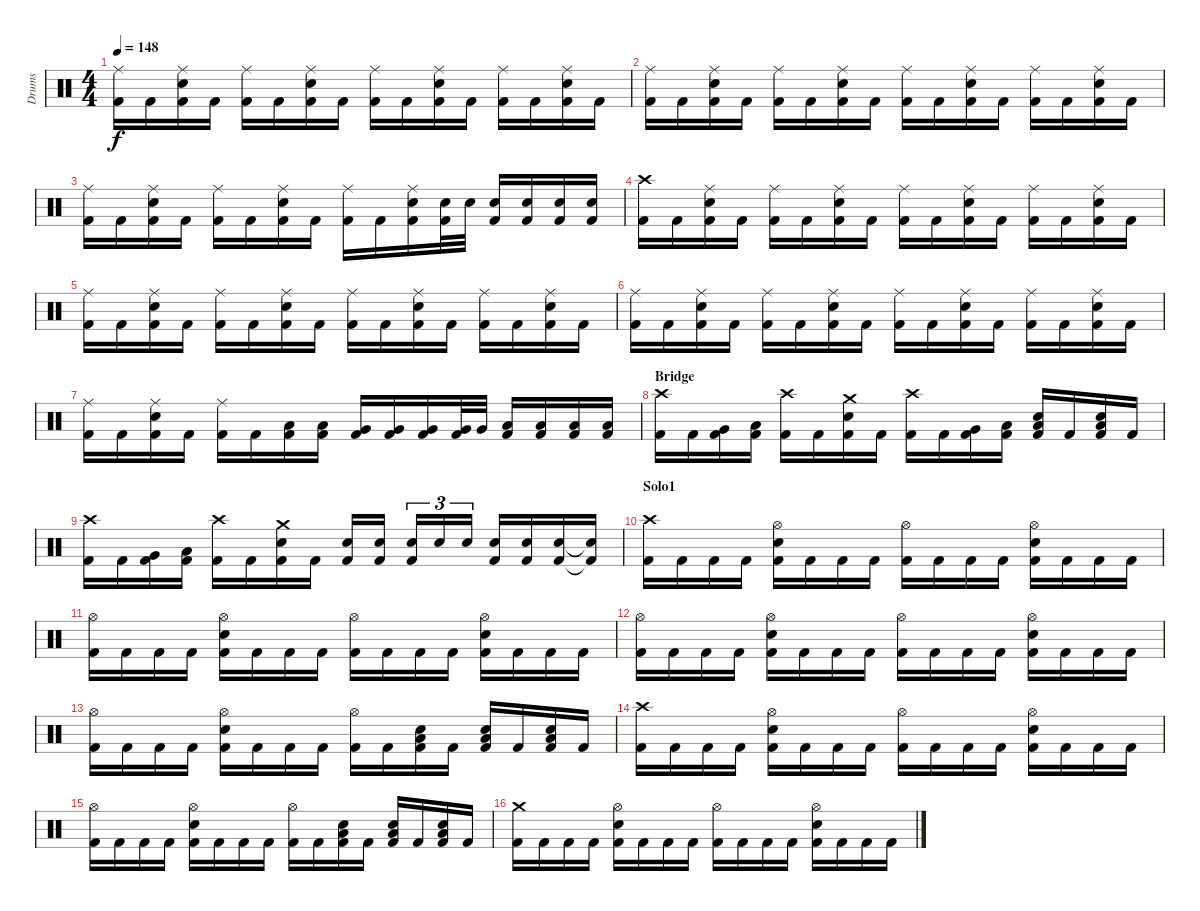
\track ("Drums" "Drums") {instrument percussion}
\staff {score}
\articulation defaults
\ts (4 4)
\tempo 148
\clef neutral
\ks c
("Kick (hit) 2" "Ride (middle)").16{dy f} "Kick (hit) 2".16 ("Kick (hit) 2" "Electric Snare (hit)" "Ride (middle)").16 "Kick (hit) 2".16 ("Kick (hit) 2" "Ride (middle)").16 "Kick (hit) 2".16 ("Kick (hit) 2" "Electric Snare (hit)" "Ride (middle)").16 "Kick (hit) 2".16 ("Kick (hit) 2" "Ride (middle)").16 "Kick (hit) 2".16 ("Kick (hit) 2" "Electric Snare (hit)" "Ride (middle)").16 "Kick (hit) 2".16 ("Kick (hit) 2" "Ride (middle)").16 "Kick (hit) 2".16 ("Kick (hit) 2" "Electric Snare (hit)" "Ride (middle)").16 "Kick (hit) 2".16 |
("Kick (hit) 2" "Ride (middle)").16 "Kick (hit) 2".16 ("Kick (hit) 2" "Electric Snare (hit)" "Ride (middle)").16 "Kick (hit) 2".16 ("Kick (hit) 2" "Ride (middle)").16 "Kick (hit) 2".16 ("Kick (hit) 2" "Electric Snare (hit)" "Ride (middle)").16 "Kick (hit) 2".16 ("Kick (hit) 2" "Ride (middle)").16 "Kick (hit) 2".16 ("Kick (hit) 2" "Electric Snare (hit)" "Ride (middle)").16 "Kick (hit) 2".16 ("Kick (hit) 2" "Ride (middle)").16 "Kick (hit) 2".16 ("Kick (hit) 2" "Electric Snare (hit)" "Ride (middle)").16 "Kick (hit) 2".16 |
("Kick (hit) 2" "Ride (middle)").16 "Kick (hit) 2".16 ("Kick (hit) 2" "Electric Snare (hit)" "Ride (middle)").16 "Kick (hit) 2".16 ("Kick (hit) 2" "Ride (middle)").16 "Kick (hit) 2".16 ("Kick (hit) 2" "Electric Snare (hit)" "Ride (middle)").16 "Kick (hit) 2".16 ("Kick (hit) 2" "Ride (middle)").16 "Kick (hit) 2".16 ("Kick (hit) 2" "Electric Snare (hit)" "Ride (middle)").16 ("Kick (hit) 2" "Electric Snare (hit)").32 "Electric Snare (hit)".32 ("Kick (hit) 2" "Electric Snare (hit)").16 ("Kick (hit) 2" "Electric Snare (hit)").16 ("Kick (hit) 2" "Electric Snare (hit)").16 ("Kick (hit) 2" "Electric Snare (hit)").16 |
("Kick (hit) 2" "Crash high (hit)").16 "Kick (hit) 2".16 ("Kick (hit) 2" "Electric Snare (hit)" "Ride (middle)").16 "Kick (hit) 2".16 ("Kick (hit) 2" "Ride (middle)").16 "Kick (hit) 2".16 ("Kick (hit) 2" "Electric Snare (hit)" "Ride (middle)").16 "Kick (hit) 2".16 ("Kick (hit) 2" "Ride (middle)").16 "Kick (hit) 2".16 ("Kick (hit) 2" "Electric Snare (hit)" "Ride (middle)").16 "Kick (hit) 2".16 ("Kick (hit) 2" "Ride (middle)").16 "Kick (hit) 2".16 ("Kick (hit) 2" "Electric Snare (hit)" "Ride (middle)").16 "Kick (hit) 2".16 |
("Kick (hit) 2" "Ride (middle)").16 "Kick (hit) 2".16 ("Kick (hit) 2" "Electric Snare (hit)" "Ride (middle)").16 "Kick (hit) 2".16 ("Kick (hit) 2" "Ride (middle)").16 "Kick (hit) 2".16 ("Kick (hit) 2" "Electric Snare (hit)" "Ride (middle)").16 "Kick (hit) 2".16 ("Kick (hit) 2" "Ride (middle)").16 "Kick (hit) 2".16 ("Kick (hit) 2" "Electric Snare (hit)" "Ride (middle)").16 "Kick (hit) 2".16 ("Kick (hit) 2" "Ride (middle)").16 "Kick (hit) 2".16 ("Kick (hit) 2" "Electric Snare (hit)" "Ride (middle)").16 "Kick (hit) 2".16 |
("Kick (hit) 2" "Ride (middle)").16 "Kick (hit) 2".16 ("Kick (hit) 2" "Electric Snare (hit)" "Ride (middle)").16 "Kick (hit) 2".16 ("Kick (hit) 2" "Ride (middle)").16 "Kick (hit) 2".16 ("Kick (hit) 2" "Electric Snare (hit)" "Ride (middle)").16 "Kick (hit) 2".16 ("Kick (hit) 2" "Ride (middle)").16 "Kick (hit) 2".16 ("Kick (hit) 2" "Electric Snare (hit)" "Ride (middle)").16 "Kick (hit) 2".16 ("Kick (hit) 2" "Ride (middle)").16 "Kick (hit) 2".16 ("Kick (hit) 2" "Electric Snare (hit)" "Ride (middle)").16 "Kick (hit) 2".16 |
("Kick (hit) 2" "Ride (middle)").16 "Kick (hit) 2".16 ("Kick (hit) 2" "Electric Snare (hit)" "Ride (middle)").16 "Kick (hit) 2".16 ("Kick (hit) 2" "Ride (middle)").16 "Kick (hit) 2".16 ("Kick (hit) 2" "Low Tom (hit)").16 ("Kick (hit) 2" "Low Tom (hit)").16 ("Kick (hit) 2" "Very Low Tom (hit)").16 ("Kick (hit) 2" "Very Low Tom (hit)").16 ("Kick (hit) 2" "Very Low Tom (hit)").16 ("Kick (hit) 2" "Very Low Tom (hit)").32 "Very Low Tom (hit)".32 ("Kick (hit) 2" "Low Floor Tom (hit)").16 ("Kick (hit) 2" "Low Floor Tom (hit)").16 ("Kick (hit) 2" "Low Floor Tom (hit)").16 ("Kick (hit) 2" "Low Floor Tom (hit)").16 |
\section ("" "Bridge")
("Kick (hit) 2" "Crash high (hit)").16 "Kick (hit) 2".16 ("Kick (hit) 2" "Very Low Tom (hit)").16 ("Kick (hit) 2" "Low Tom (hit)").16 ("Kick (hit) 2" "Crash high (hit)").16 "Kick (hit) 2".16 ("Kick (hit) 2" "Electric Snare (hit)" "Crash medium (hit)").16 "Kick (hit) 2".16 ("Kick (hit) 2" "Crash high (hit)").16 "Kick (hit) 2".16 ("Kick (hit) 2" "Very Low Tom (hit)").16 ("Kick (hit) 2" "Low Tom (hit)").16 ("Kick (hit) 2" "Electric Snare (hit)" "Low Floor Tom (hit)").16 "Kick (hit) 2".16 ("Kick (hit) 2" "Electric Snare (hit)" "Low Floor Tom (hit)").16 "Kick (hit) 2".16 |
("Kick (hit) 2" "Crash high (hit)").16 "Kick (hit) 2".16 ("Kick (hit) 2" "Very Low Tom (hit)").16 ("Kick (hit) 2" "Low Tom (hit)").16 ("Kick (hit) 2" "Crash high (hit)").16 "Kick (hit) 2".16 ("Kick (hit) 2" "Electric Snare (hit)" "Crash medium (hit)").16 "Kick (hit) 2".16 ("Kick (hit) 2" "Electric Snare (hit)").16 ("Kick (hit) 2" "Electric Snare (hit)").16 ("Kick (hit) 2" "Electric Snare (hit)").16{tu (3 2)} "Electric Snare (hit)".16{tu (3 2)} "Electric Snare (hit)".16{tu (3 2)} ("Kick (hit) 2" "Electric Snare (hit)").16 ("Kick (hit) 2" "Electric Snare (hit)").16 ("Kick (hit) 2" "Electric Snare (hit)").16 ("Kick (hit) 2"{t} "Electric Snare (hit)"{t}).16 |
\section ("" "Solo1")
("Kick (hit) 2" "Crash high (hit)").16 "Kick (hit) 2".16 "Kick (hit) 2".16 "Kick (hit) 2".16 ("Kick (hit) 2" "Electric Snare (hit)" "Hi-Hat (open)").16 "Kick (hit) 2".16 "Kick (hit) 2".16 "Kick (hit) 2".16 ("Kick (hit) 2" "Hi-Hat (open)").16 "Kick (hit) 2".16 "Kick (hit) 2".16 "Kick (hit) 2".16 ("Kick (hit) 2" "Electric Snare (hit)" "Hi-Hat (open)").16 "Kick (hit) 2".16 "Kick (hit) 2".16 "Kick (hit) 2".16 |
("Kick (hit) 2" "Hi-Hat (open)").16 "Kick (hit) 2".16 "Kick (hit) 2".16 "Kick (hit) 2".16 ("Kick (hit) 2" "Electric Snare (hit)" "Hi-Hat (open)").16 "Kick (hit) 2".16 "Kick (hit) 2".16 "Kick (hit) 2".16 ("Kick (hit) 2" "Hi-Hat (open)").16 "Kick (hit) 2".16 "Kick (hit) 2".16 "Kick (hit) 2".16 ("Kick (hit) 2" "Electric Snare (hit)" "Hi-Hat (open)").16 "Kick (hit) 2".16 "Kick (hit) 2".16 "Kick (hit) 2".16 |
("Kick (hit) 2" "Hi-Hat (open)").16 "Kick (hit) 2".16 "Kick (hit) 2".16 "Kick (hit) 2".16 ("Kick (hit) 2" "Electric Snare (hit)" "Hi-Hat (open)").16 "Kick (hit) 2".16 "Kick (hit) 2".16 "Kick (hit) 2".16 ("Kick (hit) 2" "Hi-Hat (open)").16 "Kick (hit) 2".16 "Kick (hit) 2".16 "Kick (hit) 2".16 ("Kick (hit) 2" "Electric Snare (hit)" "Hi-Hat (open)").16 "Kick (hit) 2".16 "Kick (hit) 2".16 "Kick (hit) 2".16 |
("Kick (hit) 2" "Hi-Hat (open)").16 "Kick (hit) 2".16 "Kick (hit) 2".16 "Kick (hit) 2".16 ("Kick (hit) 2" "Electric Snare (hit)" "Hi-Hat (open)").16 "Kick (hit) 2".16 "Kick (hit) 2".16 "Kick (hit) 2".16 ("Kick (hit) 2" "Hi-Hat (open)").16 "Kick (hit) 2".16 ("Kick (hit) 2" "Electric Snare (hit)" "Low Floor Tom (hit)").16 "Kick (hit) 2".16 ("Kick (hit) 2" "Electric Snare (hit)" "Low Floor Tom (hit)").16 "Kick (hit) 2".16 ("Kick (hit) 2" "Electric Snare (hit)" "Low Floor Tom (hit)").16 "Kick (hit) 2".16 |
("Kick (hit) 2" "Crash high (hit)").16 "Kick (hit) 2".16 "Kick (hit) 2".16 "Kick (hit) 2".16 ("Kick (hit) 2" "Electric Snare (hit)" "Hi-Hat (open)").16 "Kick (hit) 2".16 "Kick (hit) 2".16 "Kick (hit) 2".16 ("Kick (hit) 2" "Hi-Hat (open)").16 "Kick (hit) 2".16 "Kick (hit) 2".16 "Kick (hit) 2".16 ("Kick (hit) 2" "Electric Snare (hit)" "Hi-Hat (open)").16 "Kick (hit) 2".16 "Kick (hit) 2".16 "Kick (hit) 2".16 |
("Kick (hit) 2" "Hi-Hat (open)").16 "Kick (hit) 2".16 "Kick (hit) 2".16 "Kick (hit) 2".16 ("Kick (hit) 2" "Electric Snare (hit)" "Hi-Hat (open)").16 "Kick (hit) 2".16 "Kick (hit) 2".16 "Kick (hit) 2".16 ("Kick (hit) 2" "Hi-Hat (open)").16 "Kick (hit) 2".16 ("Kick (hit) 2" "Electric Snare (hit)" "Low Floor Tom (hit)").16 "Kick (hit) 2".16 ("Kick (hit) 2" "Electric Snare (hit)" "Low Floor Tom (hit)").16 "Kick (hit) 2".16 ("Kick (hit) 2" "Electric Snare (hit)" "Low Floor Tom (hit)").16 "Kick (hit) 2".16 |
("Kick (hit) 2" "Crash medium (hit)").16 "Kick (hit) 2".16 "Kick (hit) 2".16 "Kick (hit) 2".16 ("Kick (hit) 2" "Electric Snare (hit)" "Hi-Hat (open)").16 "Kick (hit) 2".16 "Kick (hit) 2".16 "Kick (hit) 2".16 ("Kick (hit) 2" "Hi-Hat (open)").16 "Kick (hit) 2".16 "Kick (hit) 2".16 "Kick (hit) 2".16 ("Kick (hit) 2" "Electric Snare (hit)" "Hi-Hat (open)").16 "Kick (hit) 2".16 "Kick (hit) 2".16 "Kick (hit) 2".16
